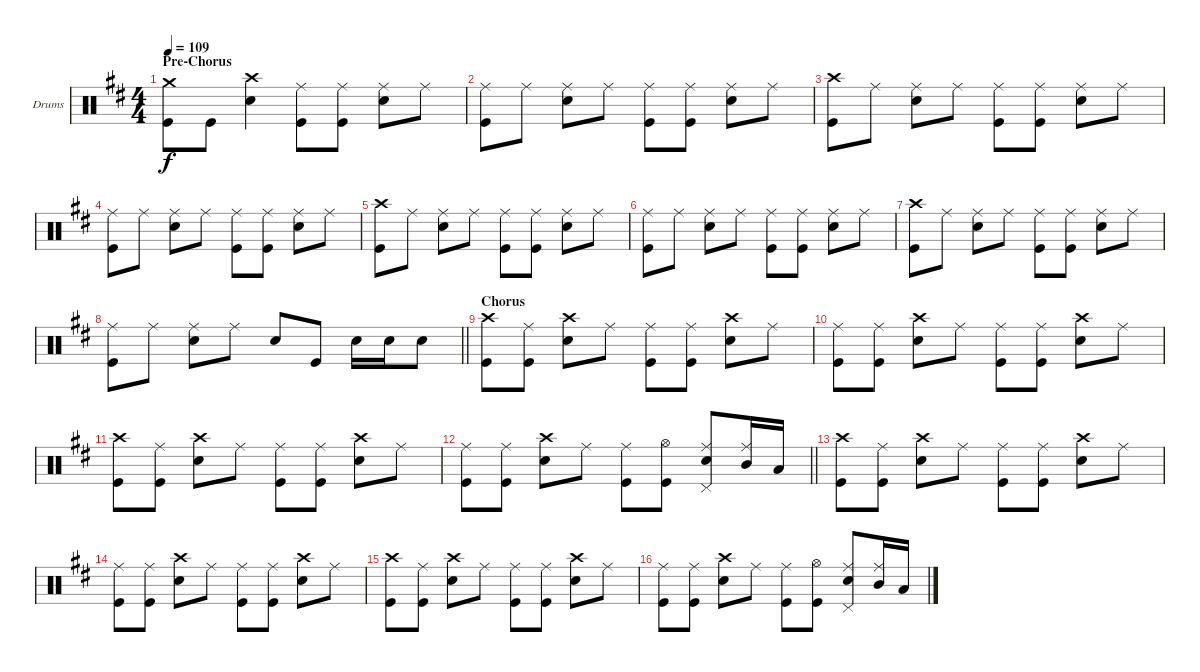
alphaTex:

\bracketExtendMode groupsimilarinstruments
\firstSystemTrackNameOrientation horizontal
\otherSystemsTrackNameOrientation horizontal
\track ("Drumkit" "Drums") {instrument percussion}
\staff {score}
\articulation defaults
\ts (4 4)
\section ("" "Pre-Chorus")
\tempo 109
\clef neutral
\ks d
("Kick (hit)" "Crash medium (hit)").8{dy f} "Kick (hit)".8 ("Snare (hit) 2" "Crash high (hit)").4 ("Kick (hit)" "Ride (middle)").8 ("Kick (hit)" "Ride (middle)").8 ("Snare (hit) 2" "Ride (middle)").8 "Ride (middle)".8 |
("Kick (hit)" "Ride (middle)").8 "Ride (middle)".8 ("Snare (hit) 2" "Ride (middle)").8 "Ride (middle)".8 ("Kick (hit)" "Ride (middle)").8 ("Kick (hit)" "Ride (middle)").8 ("Snare (hit) 2" "Ride (middle)").8 "Ride (middle)".8 |
("Kick (hit)" "Crash high (hit)").8 "Ride (middle)".8 ("Snare (hit) 2" "Ride (middle)").8 "Ride (middle)".8 ("Kick (hit)" "Ride (middle)").8 ("Kick (hit)" "Ride (middle)").8 ("Snare (hit) 2" "Ride (middle)").8 "Ride (middle)".8 |
("Kick (hit)" "Ride (middle)").8 "Ride (middle)".8 ("Snare (hit) 2" "Ride (middle)").8 "Ride (middle)".8 ("Kick (hit)" "Ride (middle)").8 ("Kick (hit)" "Ride (middle)").8 ("Snare (hit) 2" "Ride (middle)").8 "Ride (middle)".8 |
("Kick (hit)" "Crash high (hit)").8 "Ride (middle)".8 ("Snare (hit) 2" "Ride (middle)").8 "Ride (middle)".8 ("Kick (hit)" "Ride (middle)").8 ("Kick (hit)" "Ride (middle)").8 ("Snare (hit) 2" "Ride (middle)").8 "Ride (middle)".8 |
("Kick (hit)" "Ride (middle)").8 "Ride (middle)".8 ("Snare (hit) 2" "Ride (middle)").8 "Ride (middle)".8 ("Kick (hit)" "Ride (middle)").8 ("Kick (hit)" "Ride (middle)").8 ("Snare (hit) 2" "Ride (middle)").8 "Ride (middle)".8 |
("Kick (hit)" "Crash high (hit)").8 "Ride (middle)".8 ("Snare (hit) 2" "Ride (middle)").8 "Ride (middle)".8 ("Kick (hit)" "Ride (middle)").8 ("Kick (hit)" "Ride (middle)").8 ("Snare (hit) 2" "Ride (middle)").8 "Ride (middle)".8 |
\barLineRight lightlight
("Kick (hit)" "Ride (middle)").8 "Ride (middle)".8 ("Snare (hit) 2" "Ride (middle)").8 "Ride (middle)".8 "Snare (hit) 2".8 "Kick (hit)".8 "Snare (hit) 2".16 "Snare (hit) 2".16 "Snare (hit) 2".8 |
\section ("" "Chorus")
("Kick (hit)" "Crash high (hit)").8 ("Kick (hit)" "Ride (middle)").8 ("Snare (hit) 2" "Crash high (hit)").8 "Ride (middle)".8 ("Kick (hit)" "Ride (middle)").8 ("Kick (hit)" "Ride (middle)").8 ("Snare (hit) 2" "Crash high (hit)").8 "Ride (middle)".8 |
("Kick (hit)" "Ride (middle)").8 ("Kick (hit)" "Ride (middle)").8 ("Snare (hit) 2" "Crash high (hit)").8 "Ride (middle)".8 ("Kick (hit)" "Ride (middle)").8 ("Kick (hit)" "Ride (middle)").8 ("Snare (hit) 2" "Crash high (hit)").8 "Ride (middle)".8 |
("Kick (hit)" "Crash high (hit)").8 ("Kick (hit)" "Ride (middle)").8 ("Snare (hit) 2" "Crash high (hit)").8 "Ride (middle)".8 ("Kick (hit)" "Ride (middle)").8 ("Kick (hit)" "Ride (middle)").8 ("Snare (hit) 2" "Crash high (hit)").8 "Ride (middle)".8 |
\barLineRight lightlight
("Kick (hit)" "Ride (middle)").8 ("Kick (hit)" "Ride (middle)").8 ("Snare (hit) 2" "Crash high (hit)").8 "Ride (middle)".8 ("Kick (hit)" "Ride (middle)").8 ("Kick (hit)" "Hi-Hat (open)").8 ("Snare (hit) 2" "Pedal Hi-Hat (hit)" "Ride (middle)").8 ("Ride (middle)" "Mid Tom (hit)").16 "Low Tom (hit)".16 |
("Kick (hit)" "Crash high (hit)").8 ("Kick (hit)" "Ride (middle)").8 ("Snare (hit) 2" "Crash high (hit)").8 "Ride (middle)".8 ("Kick (hit)" "Ride (middle)").8 ("Kick (hit)" "Ride (middle)").8 ("Snare (hit) 2" "Crash high (hit)").8 "Ride (middle)".8 |
("Kick (hit)" "Ride (middle)").8 ("Kick (hit)" "Ride (middle)").8 ("Snare (hit) 2" "Crash high (hit)").8 "Ride (middle)".8 ("Kick (hit)" "Ride (middle)").8 ("Kick (hit)" "Ride (middle)").8 ("Snare (hit) 2" "Crash high (hit)").8 "Ride (middle)".8 |
("Kick (hit)" "Crash high (hit)").8 ("Kick (hit)" "Ride (middle)").8 ("Snare (hit) 2" "Crash high (hit)").8 "Ride (middle)".8 ("Kick (hit)" "Ride (middle)").8 ("Kick (hit)" "Ride (middle)").8 ("Snare (hit) 2" "Crash high (hit)").8 "Ride (middle)".8 |
("Kick (hit)" "Ride (middle)").8 ("Kick (hit)" "Ride (middle)").8 ("Snare (hit) 2" "Crash high (hit)").8 "Ride (middle)".8 ("Kick (hit)" "Ride (middle)").8 ("Kick (hit)" "Hi-Hat (open)").8 ("Snare (hit) 2" "Pedal Hi-Hat (hit)" "Ride (middle)").8 ("Ride (middle)" "Mid Tom (hit)").16 "Low Tom (hit)".16
